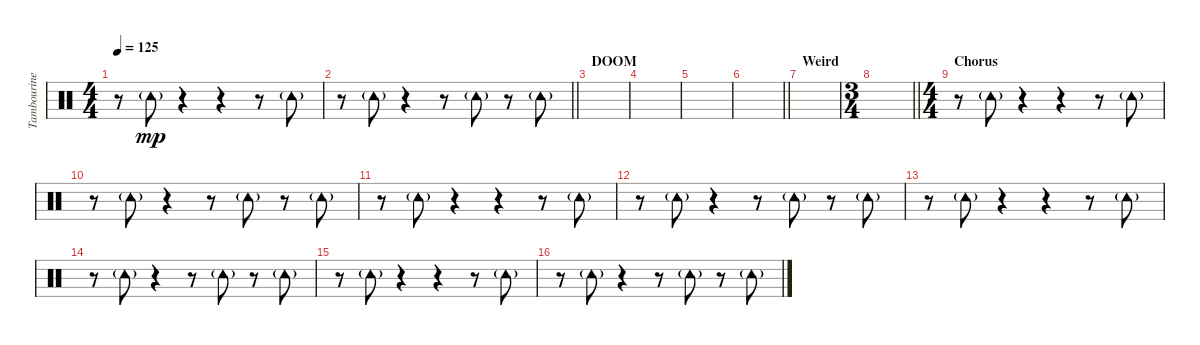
\track ("Tambourine" "Tambourine") {instrument percussion}
\staff {score}
\articulation defaults
\ts (4 4)
\tempo 125
\clef neutral
\ks c
r.8{dy mp} "Tambourine (hit)"{g}.8 r.4 r.4 r.8 "Tambourine (hit)"{g}.8 |
\barLineRight lightlight
r.8 "Tambourine (hit)"{g}.8 r.4 r.8 "Tambourine (hit)"{g}.8 r.8 "Tambourine (hit)"{g}.8 |
\section ("" "DOOM")
|
|
|
\barLineRight lightlight
|
\section ("" "Weird")
|
\ts (3 4)
\barLineRight lightlight
|
\ts (4 4)
\section ("" "Chorus")
r.8 "Tambourine (hit)"{g}.8 r.4 r.4 r.8 "Tambourine (hit)"{g}.8 |
r.8 "Tambourine (hit)"{g}.8 r.4 r.8 "Tambourine (hit)"{g}.8 r.8 "Tambourine (hit)"{g}.8 |
r.8 "Tambourine (hit)"{g}.8 r.4 r.4 r.8 "Tambourine (hit)"{g}.8 |
r.8 "Tambourine (hit)"{g}.8 r.4 r.8 "Tambourine (hit)"{g}.8 r.8 "Tambourine (hit)"{g}.8 |
r.8 "Tambourine (hit)"{g}.8 r.4 r.4 r.8 "Tambourine (hit)"{g}.8 |
r.8 "Tambourine (hit)"{g}.8 r.4 r.8 "Tambourine (hit)"{g}.8 r.8 "Tambourine (hit)"{g}.8 |
r.8 "Tambourine (hit)"{g}.8 r.4 r.4 r.8 "Tambourine (hit)"{g}.8 |
r.8 "Tambourine (hit)"{g}.8 r.4 r.8 "Tambourine (hit)"{g}.8 r.8 "Tambourine (hit)"{g}.8
